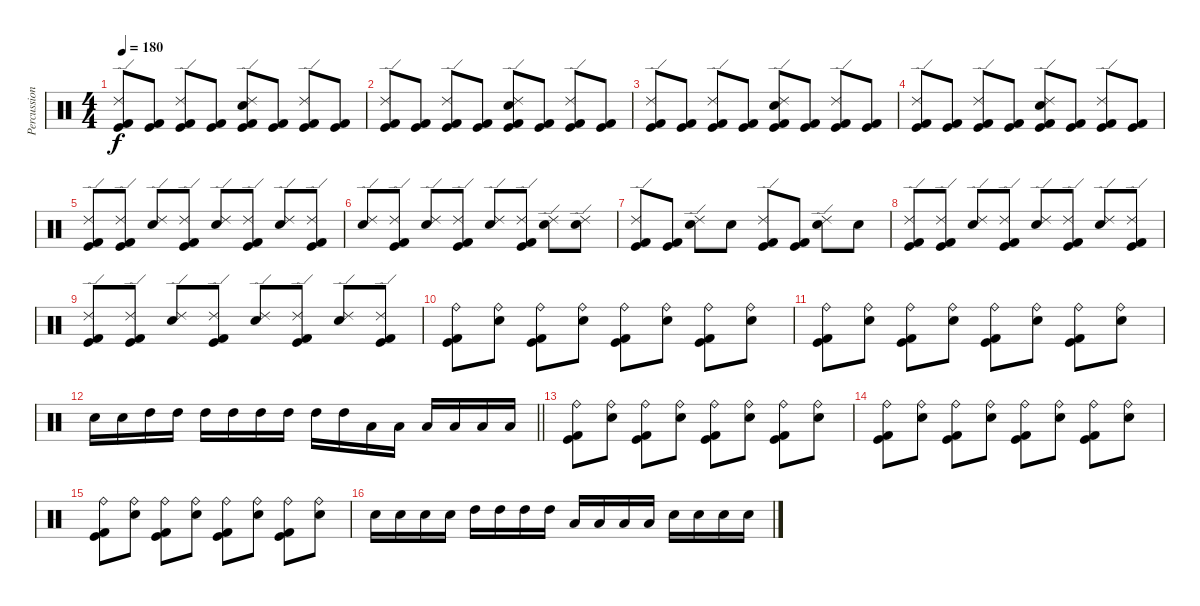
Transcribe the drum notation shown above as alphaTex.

\track ("Percussion" "Percussion") {instrument percussion}
\staff {score}
\articulation defaults
\ts (4 4)
\tempo 180
\clef neutral
\ks c
("Ride (edge) 2" "Kick (hit)" "Kick (hit) 2").8{dy f} ("Kick (hit)" "Kick (hit) 2").8 ("Ride (edge) 2" "Kick (hit)" "Kick (hit) 2").8 ("Kick (hit)" "Kick (hit) 2").8 ("Ride (edge) 2" "Snare (hit) 2" "Kick (hit)" "Kick (hit) 2").8 ("Kick (hit)" "Kick (hit) 2").8 ("Ride (edge) 2" "Kick (hit)" "Kick (hit) 2").8 ("Kick (hit)" "Kick (hit) 2").8 |
("Ride (edge) 2" "Kick (hit)" "Kick (hit) 2").8 ("Kick (hit)" "Kick (hit) 2").8 ("Ride (edge) 2" "Kick (hit)" "Kick (hit) 2").8 ("Kick (hit)" "Kick (hit) 2").8 ("Ride (edge) 2" "Snare (hit) 2" "Kick (hit)" "Kick (hit) 2").8 ("Kick (hit)" "Kick (hit) 2").8 ("Ride (edge) 2" "Kick (hit)" "Kick (hit) 2").8 ("Kick (hit)" "Kick (hit) 2").8 |
("Ride (edge) 2" "Kick (hit)" "Kick (hit) 2").8 ("Kick (hit)" "Kick (hit) 2").8 ("Ride (edge) 2" "Kick (hit)" "Kick (hit) 2").8 ("Kick (hit)" "Kick (hit) 2").8 ("Ride (edge) 2" "Snare (hit) 2" "Kick (hit)" "Kick (hit) 2").8 ("Kick (hit)" "Kick (hit) 2").8 ("Ride (edge) 2" "Kick (hit)" "Kick (hit) 2").8 ("Kick (hit)" "Kick (hit) 2").8 |
("Ride (edge) 2" "Kick (hit)" "Kick (hit) 2").8 ("Kick (hit)" "Kick (hit) 2").8 ("Ride (edge) 2" "Kick (hit)" "Kick (hit) 2").8 ("Kick (hit)" "Kick (hit) 2").8 ("Ride (edge) 2" "Snare (hit) 2" "Kick (hit)" "Kick (hit) 2").8 ("Kick (hit)" "Kick (hit) 2").8 ("Ride (edge) 2" "Kick (hit)" "Kick (hit) 2").8 ("Kick (hit)" "Kick (hit) 2").8 |
("Ride (edge) 2" "Kick (hit)" "Kick (hit) 2").8 ("Ride (edge) 2" "Kick (hit)" "Kick (hit) 2").8 ("Ride (edge) 2" "Snare (hit) 2").8 ("Ride (edge) 2" "Kick (hit)" "Kick (hit) 2").8 ("Ride (edge) 2" "Snare (hit) 2").8 ("Ride (edge) 2" "Kick (hit)" "Kick (hit) 2").8 ("Ride (edge) 2" "Snare (hit) 2").8 ("Ride (edge) 2" "Kick (hit)" "Kick (hit) 2").8 |
("Ride (edge) 2" "Snare (hit) 2").8 ("Ride (edge) 2" "Kick (hit)" "Kick (hit) 2").8 ("Ride (edge) 2" "Snare (hit) 2").8 ("Ride (edge) 2" "Kick (hit)" "Kick (hit) 2").8 ("Ride (edge) 2" "Snare (hit) 2").8 ("Ride (edge) 2" "Kick (hit)" "Kick (hit) 2").8 ("Ride (edge) 2" "Snare (hit) 2").8 ("Ride (edge) 2" "Snare (hit) 2").8 |
("Ride (edge) 2" "Kick (hit)" "Kick (hit) 2").8 ("Kick (hit)" "Kick (hit) 2").8 ("Ride (edge) 2" "Snare (hit) 2").8 "Snare (hit) 2".8 ("Ride (edge) 2" "Kick (hit)" "Kick (hit) 2").8 ("Kick (hit)" "Kick (hit) 2").8 ("Ride (edge) 2" "Snare (hit) 2").8 "Snare (hit) 2".8 |
("Ride (edge) 2" "Kick (hit)" "Kick (hit) 2").8 ("Ride (edge) 2" "Kick (hit)" "Kick (hit) 2").8 ("Ride (edge) 2" "Snare (hit) 2").8 ("Ride (edge) 2" "Kick (hit)" "Kick (hit) 2").8 ("Ride (edge) 2" "Snare (hit) 2").8 ("Ride (edge) 2" "Kick (hit)" "Kick (hit) 2").8 ("Ride (edge) 2" "Snare (hit) 2").8 ("Ride (edge) 2" "Kick (hit)" "Kick (hit) 2").8 |
("Ride (edge) 2" "Kick (hit)" "Kick (hit) 2").8 ("Ride (edge) 2" "Kick (hit)" "Kick (hit) 2").8 ("Ride (edge) 2" "Snare (hit) 2").8 ("Ride (edge) 2" "Kick (hit)" "Kick (hit) 2").8 ("Ride (edge) 2" "Snare (hit) 2").8 ("Ride (edge) 2" "Kick (hit)" "Kick (hit) 2").8 ("Ride (edge) 2" "Snare (hit) 2").8 ("Ride (edge) 2" "Kick (hit)" "Kick (hit) 2").8 |
("Ride (bell)" "Kick (hit)" "Kick (hit) 2").8 ("Ride (bell)" "Snare (hit) 2").8 ("Ride (bell)" "Kick (hit)" "Kick (hit) 2").8 ("Ride (bell)" "Snare (hit) 2").8 ("Ride (bell)" "Kick (hit)" "Kick (hit) 2").8 ("Ride (bell)" "Snare (hit) 2").8 ("Ride (bell)" "Kick (hit)" "Kick (hit) 2").8 ("Ride (bell)" "Snare (hit) 2").8 |
("Ride (bell)" "Kick (hit)" "Kick (hit) 2").8 ("Ride (bell)" "Snare (hit) 2").8 ("Ride (bell)" "Kick (hit)" "Kick (hit) 2").8 ("Ride (bell)" "Snare (hit) 2").8 ("Ride (bell)" "Kick (hit)" "Kick (hit) 2").8 ("Ride (bell)" "Snare (hit) 2").8 ("Ride (bell)" "Kick (hit)" "Kick (hit) 2").8 ("Ride (bell)" "Snare (hit) 2").8 |
\barLineRight lightlight "Snare (hit) 2".16 "Snare (hit) 2".16 "High Tom (hit)".16 "High Tom (hit)".16 "High Tom (hit)".16 "High Tom (hit)".16 "High Tom (hit)".16 "High Tom (hit)".16 "High Tom (hit)".16 "High Tom (hit)".16 "Low Tom (hit)".16 "Low Tom (hit)".16 "Low Tom (hit)".16 "Low Tom (hit)".16 "Low Tom (hit)".16 "Low Tom (hit)".16
|
("Ride (bell)" "Kick (hit)" "Kick (hit) 2").8 ("Ride (bell)" "Snare (hit) 2").8 ("Ride (bell)" "Kick (hit)" "Kick (hit) 2").8 ("Ride (bell)" "Snare (hit) 2").8 ("Ride (bell)" "Kick (hit)" "Kick (hit) 2").8 ("Ride (bell)" "Snare (hit) 2").8 ("Ride (bell)" "Kick (hit)" "Kick (hit) 2").8 ("Ride (bell)" "Snare (hit) 2").8 |
("Ride (bell)" "Kick (hit)" "Kick (hit) 2").8 ("Ride (bell)" "Snare (hit) 2").8 ("Ride (bell)" "Kick (hit)" "Kick (hit) 2").8 ("Ride (bell)" "Snare (hit) 2").8 ("Ride (bell)" "Kick (hit)" "Kick (hit) 2").8 ("Ride (bell)" "Snare (hit) 2").8 ("Ride (bell)" "Kick (hit)" "Kick (hit) 2").8 ("Ride (bell)" "Snare (hit) 2").8 |
("Ride (bell)" "Kick (hit)" "Kick (hit) 2").8 ("Ride (bell)" "Snare (hit) 2").8 ("Ride (bell)" "Kick (hit)" "Kick (hit) 2").8 ("Ride (bell)" "Snare (hit) 2").8 ("Ride (bell)" "Kick (hit)" "Kick (hit) 2").8 ("Ride (bell)" "Snare (hit) 2").8 ("Ride (bell)" "Kick (hit)" "Kick (hit) 2").8 ("Ride (bell)" "Snare (hit) 2").8 |
"Snare (hit) 2".16 "Snare (hit) 2".16 "Snare (hit) 2".16 "Snare (hit) 2".16 "High Tom (hit)".16 "High Tom (hit)".16 "High Tom (hit)".16 "High Tom (hit)".16 "Low Tom (hit)".16 "Low Tom (hit)".16 "Low Tom (hit)".16 "Low Tom (hit)".16 "Snare (hit) 2".16 "Snare (hit) 2".16 "Snare (hit) 2".16 "Snare (hit) 2".16
